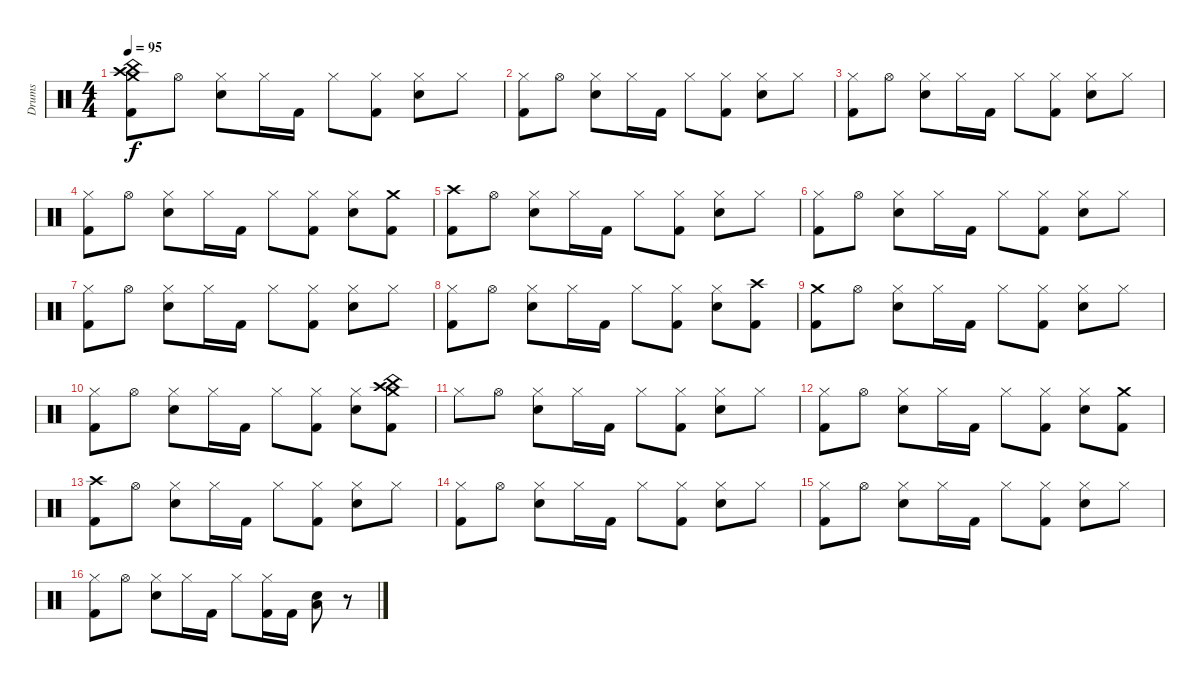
\track ("Drums" "Drums") {instrument percussion}
\staff {score}
\articulation defaults
\ts (4 4)
\tempo 95
\clef neutral
\ks c
("Crash high (hit)" "Crash medium (hit)" "China (hit)" "Kick (hit) 2").8{dy f} "Hi-Hat (open)".8 ("Hi-Hat (closed)" "Electric Snare (hit)").8 "Hi-Hat (closed)".16 "Kick (hit) 2".16 "Hi-Hat (closed)".8 ("Hi-Hat (closed)" "Kick (hit) 2").8 ("Hi-Hat (closed)" "Electric Snare (hit)").8 "Hi-Hat (closed)".8 |
("Hi-Hat (closed)" "Kick (hit) 2").8 "Hi-Hat (open)".8 ("Hi-Hat (closed)" "Electric Snare (hit)").8 "Hi-Hat (closed)".16 "Kick (hit) 2".16 "Hi-Hat (closed)".8 ("Hi-Hat (closed)" "Kick (hit) 2").8 ("Hi-Hat (closed)" "Electric Snare (hit)").8 "Hi-Hat (closed)".8 |
("Hi-Hat (closed)" "Kick (hit) 2").8 "Hi-Hat (open)".8 ("Hi-Hat (closed)" "Electric Snare (hit)").8 "Hi-Hat (closed)".16 "Kick (hit) 2".16 "Hi-Hat (closed)".8 ("Hi-Hat (closed)" "Kick (hit) 2").8 ("Hi-Hat (closed)" "Electric Snare (hit)").8 "Hi-Hat (closed)".8 |
("Hi-Hat (closed)" "Kick (hit) 2").8 "Hi-Hat (open)".8 ("Hi-Hat (closed)" "Electric Snare (hit)").8 "Hi-Hat (closed)".16 "Kick (hit) 2".16 "Hi-Hat (closed)".8 ("Hi-Hat (closed)" "Kick (hit) 2").8 ("Hi-Hat (closed)" "Electric Snare (hit)").8 ("Crash medium (hit)" "Kick (hit) 2").8 |
("Crash high (hit)" "Kick (hit) 2").8 "Hi-Hat (open)".8 ("Hi-Hat (closed)" "Electric Snare (hit)").8 "Hi-Hat (closed)".16 "Kick (hit) 2".16 "Hi-Hat (closed)".8 ("Hi-Hat (closed)" "Kick (hit) 2").8 ("Hi-Hat (closed)" "Electric Snare (hit)").8 "Hi-Hat (closed)".8 |
("Hi-Hat (closed)" "Kick (hit) 2").8 "Hi-Hat (open)".8 ("Hi-Hat (closed)" "Electric Snare (hit)").8 "Hi-Hat (closed)".16 "Kick (hit) 2".16 "Hi-Hat (closed)".8 ("Hi-Hat (closed)" "Kick (hit) 2").8 ("Hi-Hat (closed)" "Electric Snare (hit)").8 "Hi-Hat (closed)".8 |
("Hi-Hat (closed)" "Kick (hit) 2").8 "Hi-Hat (open)".8 ("Hi-Hat (closed)" "Electric Snare (hit)").8 "Hi-Hat (closed)".16 "Kick (hit) 2".16 "Hi-Hat (closed)".8 ("Hi-Hat (closed)" "Kick (hit) 2").8 ("Hi-Hat (closed)" "Electric Snare (hit)").8 "Hi-Hat (closed)".8 |
("Hi-Hat (closed)" "Kick (hit) 2").8 "Hi-Hat (open)".8 ("Hi-Hat (closed)" "Electric Snare (hit)").8 "Hi-Hat (closed)".16 "Kick (hit) 2".16 "Hi-Hat (closed)".8 ("Hi-Hat (closed)" "Kick (hit) 2").8 ("Hi-Hat (closed)" "Electric Snare (hit)").8 ("Crash high (hit)" "Kick (hit) 2").8 |
("Crash medium (hit)" "Kick (hit) 2").8 "Hi-Hat (open)".8 ("Hi-Hat (closed)" "Electric Snare (hit)").8 "Hi-Hat (closed)".16 "Kick (hit) 2".16 "Hi-Hat (closed)".8 ("Hi-Hat (closed)" "Kick (hit) 2").8 ("Hi-Hat (closed)" "Electric Snare (hit)").8 "Hi-Hat (closed)".8 |
("Hi-Hat (closed)" "Kick (hit) 2").8 "Hi-Hat (open)".8 ("Hi-Hat (closed)" "Electric Snare (hit)").8 "Hi-Hat (closed)".16 "Kick (hit) 2".16 "Hi-Hat (closed)".8 ("Hi-Hat (closed)" "Kick (hit) 2").8 ("Hi-Hat (closed)" "Electric Snare (hit)").8 ("Crash high (hit)" "Crash medium (hit)" "China (hit)" "Kick (hit) 2").8 |
"Hi-Hat (closed)".8 "Hi-Hat (open)".8 ("Hi-Hat (closed)" "Electric Snare (hit)").8 "Hi-Hat (closed)".16 "Kick (hit) 2".16 "Hi-Hat (closed)".8 ("Hi-Hat (closed)" "Kick (hit) 2").8 ("Hi-Hat (closed)" "Electric Snare (hit)").8 "Hi-Hat (closed)".8 |
("Hi-Hat (closed)" "Kick (hit) 2").8 "Hi-Hat (open)".8 ("Hi-Hat (closed)" "Electric Snare (hit)").8 "Hi-Hat (closed)".16 "Kick (hit) 2".16 "Hi-Hat (closed)".8 ("Hi-Hat (closed)" "Kick (hit) 2").8 ("Hi-Hat (closed)" "Electric Snare (hit)").8 ("Crash medium (hit)" "Kick (hit) 2").8 |
("Crash high (hit)" "Kick (hit) 2").8 "Hi-Hat (open)".8 ("Hi-Hat (closed)" "Electric Snare (hit)").8 "Hi-Hat (closed)".16 "Kick (hit) 2".16 "Hi-Hat (closed)".8 ("Hi-Hat (closed)" "Kick (hit) 2").8 ("Hi-Hat (closed)" "Electric Snare (hit)").8 "Hi-Hat (closed)".8 |
("Hi-Hat (closed)" "Kick (hit) 2").8 "Hi-Hat (open)".8 ("Hi-Hat (closed)" "Electric Snare (hit)").8 "Hi-Hat (closed)".16 "Kick (hit) 2".16 "Hi-Hat (closed)".8 ("Hi-Hat (closed)" "Kick (hit) 2").8 ("Hi-Hat (closed)" "Electric Snare (hit)").8 "Hi-Hat (closed)".8 |
("Hi-Hat (closed)" "Kick (hit) 2").8 "Hi-Hat (open)".8 ("Hi-Hat (closed)" "Electric Snare (hit)").8 "Hi-Hat (closed)".16 "Kick (hit) 2".16 "Hi-Hat (closed)".8 ("Hi-Hat (closed)" "Kick (hit) 2").8 ("Hi-Hat (closed)" "Electric Snare (hit)").8 "Hi-Hat (closed)".8 |
("Hi-Hat (closed)" "Kick (hit) 2").8 "Hi-Hat (open)".8 ("Hi-Hat (closed)" "Electric Snare (hit)").8 "Hi-Hat (closed)".16 "Kick (hit) 2".16 "Hi-Hat (closed)".8 ("Hi-Hat (closed)" "Kick (hit) 2").16 "Kick (hit) 2".16 ("Low Floor Tom (hit)" "Electric Snare (hit)").8 r.8
